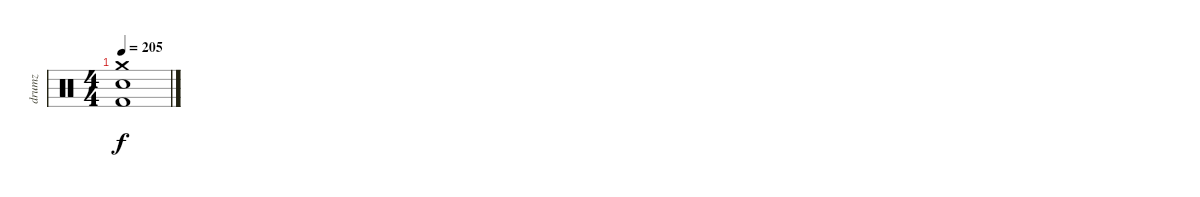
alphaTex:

\track ("drumz" "drumz") {instrument percussion}
\staff {score}
\articulation defaults
\ts (4 4)
\tempo 205
\clef neutral
\ks c
("Crash medium (hit)" "Electric Snare (hit)" "Kick (hit) 2").1{dy f}
